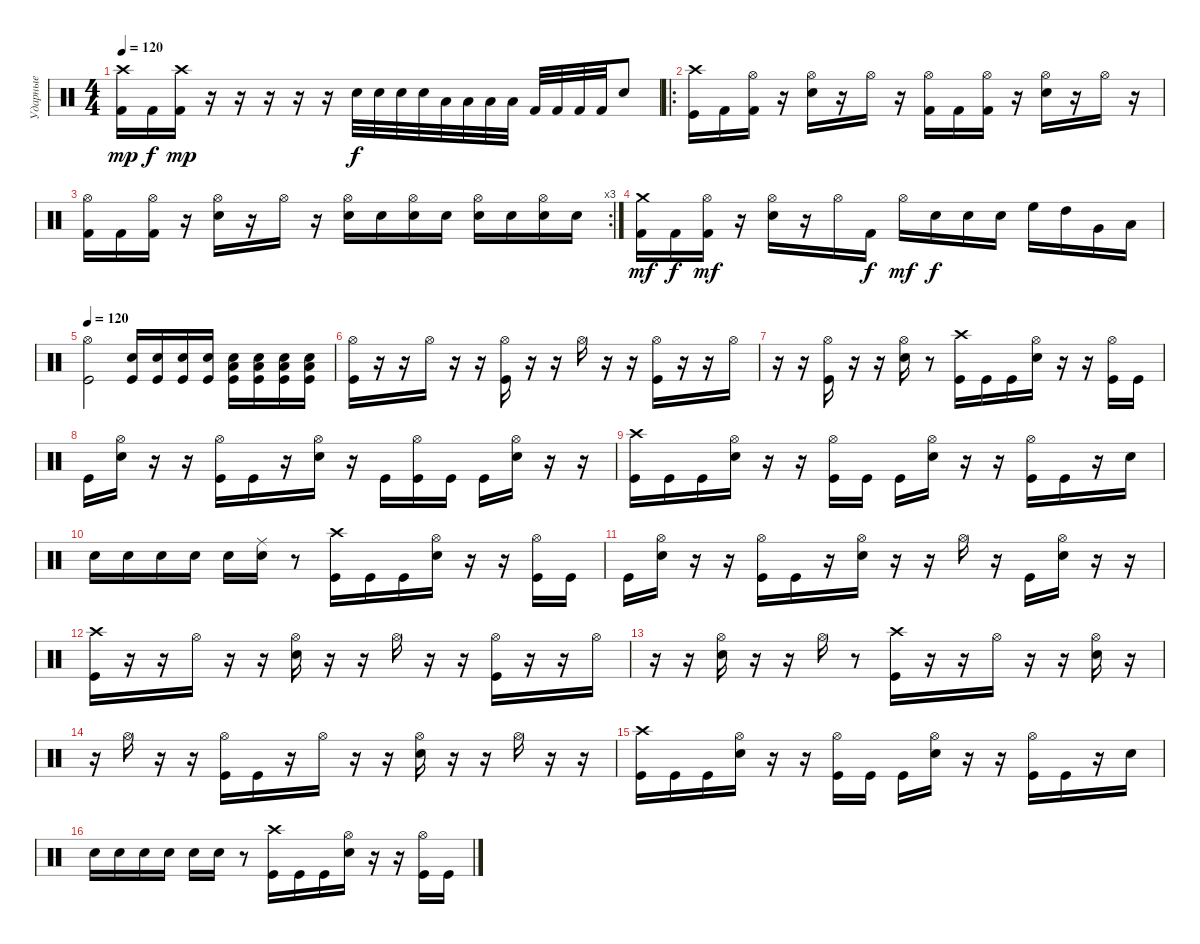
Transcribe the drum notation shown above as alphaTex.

\track ("Ударные" "Ударные") {instrument percussion}
\staff {score}
\articulation defaults
\ts (4 4)
\tempo 120
\clef neutral
\ks c
("Crash high (hit)" "Kick (hit) 2").16{dy mp} "Kick (hit) 2".16{dy f} ("Crash high (hit)" "Kick (hit) 2").16{dy mp} r.16 r.16 r.16 r.16 r.16 "Snare (hit) 2".32{dy f} "Snare (hit) 2".32 "Snare (hit) 2".32 "Snare (hit) 2".32 "Low Tom (hit)".32 "Low Tom (hit)".32 "Low Tom (hit)".32 "Low Tom (hit)".32 "Kick (hit) 2".32 "Kick (hit) 2".32 "Kick (hit) 2".32 "Kick (hit) 2".32 "Snare (hit) 2".8 |
\ro
("Crash high (hit)" "Kick (hit)").16 "Kick (hit) 2".16 ("Hi-Hat (open)" "Kick (hit) 2").16 r.16 ("Hi-Hat (open)" "Snare (hit) 2").16 r.16 "Hi-Hat (open)".16 r.16 ("Hi-Hat (open)" "Kick (hit) 2").16 "Kick (hit) 2".16 ("Hi-Hat (open)" "Kick (hit) 2").16 r.16 ("Hi-Hat (open)" "Snare (hit) 2").16 r.16 "Hi-Hat (open)".16 r.16 |
\rc 3
("Hi-Hat (open)" "Kick (hit) 2").16 "Kick (hit) 2".16 ("Hi-Hat (open)" "Kick (hit) 2").16 r.16 ("Hi-Hat (open)" "Snare (hit) 2").16 r.16 "Hi-Hat (open)".16 r.16 ("Hi-Hat (open)" "Snare (hit) 2").16 "Snare (hit) 2".16 ("Hi-Hat (open)" "Snare (hit) 2").16 "Snare (hit) 2".16 ("Hi-Hat (open)" "Snare (hit) 2").16 "Snare (hit) 2".16 ("Hi-Hat (open)" "Snare (hit) 2").16 "Snare (hit) 2".16 |
("Crash medium (hit)" "Kick (hit) 2").16{dy mf} "Kick (hit) 2".16{dy f} ("Hi-Hat (open)" "Kick (hit) 2").16{dy mf} r.16 ("Hi-Hat (open)" "Snare (hit) 2").16 r.16 "Hi-Hat (open)".16 "Kick (hit) 2".16{dy f} "Hi-Hat (open)".16{dy mf} "Snare (hit) 2".16{dy f} "Snare (hit) 2".16 "Snare (hit) 2".16 "High Floor Tom (hit)".16 "High Tom (hit)".16 "Very Low Tom (hit)".16 "Low Floor Tom (hit)".16 |
\tempo 120
("Hi-Hat (open)" "Kick (hit)").2 ("Kick (hit)" "Snare (hit) 2").16 ("Kick (hit)" "Snare (hit) 2").16 ("Kick (hit)" "Snare (hit) 2").16 ("Kick (hit)" "Snare (hit) 2").16 ("Kick (hit)" "Snare (hit) 2" "Low Floor Tom (hit)").16 ("Kick (hit)" "Snare (hit) 2" "Low Floor Tom (hit)").16 ("Kick (hit)" "Snare (hit) 2" "Low Floor Tom (hit)").16 ("Kick (hit)" "Snare (hit) 2" "Low Floor Tom (hit)").16 |
("Hi-Hat (open)" "Kick (hit)").16 r.16 r.16 "Hi-Hat (open)".16 r.16 r.16 ("Hi-Hat (open)" "Kick (hit)").16 r.16 r.16 "Hi-Hat (open)".16 r.16 r.16 ("Hi-Hat (open)" "Kick (hit)").16 r.16 r.16 "Hi-Hat (open)".16 |
r.16 r.16 ("Kick (hit)" "Hi-Hat (open)").16 r.16 r.16 ("Snare (hit) 2" "Hi-Hat (open)").16 r.8 ("Kick (hit)" "Crash high (hit)").16 "Kick (hit)".16 "Kick (hit)".16 ("Snare (hit) 2" "Hi-Hat (open)").16 r.16 r.16 ("Kick (hit)" "Hi-Hat (open)").16 "Kick (hit)".16 |
"Kick (hit)".16 ("Snare (hit) 2" "Hi-Hat (open)").16 r.16 r.16 ("Kick (hit)" "Hi-Hat (open)").16 "Kick (hit)".16 r.16 ("Snare (hit) 2" "Hi-Hat (open)").16 r.16 "Kick (hit)".16 ("Kick (hit)" "Hi-Hat (open)").16 "Kick (hit)".16 "Kick (hit)".16 ("Snare (hit) 2" "Hi-Hat (open)").16 r.16 r.16 |
("Kick (hit)" "Crash high (hit)").16 "Kick (hit)".16 "Kick (hit)".16 ("Snare (hit) 2" "Hi-Hat (open)").16 r.16 r.16 ("Kick (hit)" "Hi-Hat (open)").16 "Kick (hit)".16 "Kick (hit)".16 ("Snare (hit) 2" "Hi-Hat (open)").16 r.16 r.16 ("Kick (hit)" "Hi-Hat (open)").16 "Kick (hit)".16 r.16 "Snare (hit) 2".16 |
"Snare (hit) 2".16 "Snare (hit) 2".16 "Snare (hit) 2".16 "Snare (hit) 2".16 "Snare (hit) 2".16 ("Snare (hit) 2" "Ride (middle)").16 r.8 ("Kick (hit)" "Crash high (hit)").16 "Kick (hit)".16 "Kick (hit)".16 ("Snare (hit) 2" "Hi-Hat (open)").16 r.16 r.16 ("Kick (hit)" "Hi-Hat (open)").16 "Kick (hit)".16 |
"Kick (hit)".16 ("Snare (hit) 2" "Hi-Hat (open)").16 r.16 r.16 ("Kick (hit)" "Hi-Hat (open)").16 "Kick (hit)".16 r.16 ("Snare (hit) 2" "Hi-Hat (open)").16 r.16 r.16 "Hi-Hat (open)".16 r.16 "Kick (hit)".16 ("Snare (hit) 2" "Hi-Hat (open)").16 r.16 r.16 |
("Kick (hit)" "Crash high (hit)").16 r.16 r.16 "Hi-Hat (open)".16 r.16 r.16 ("Hi-Hat (open)" "Snare (hit) 2").16 r.16 r.16 "Hi-Hat (open)".16 r.16 r.16 ("Hi-Hat (open)" "Kick (hit)").16 r.16 r.16 "Hi-Hat (open)".16 |
r.16 r.16 ("Snare (hit) 2" "Hi-Hat (open)").16 r.16 r.16 "Hi-Hat (open)".16 r.8 ("Kick (hit)" "Crash high (hit)").16 r.16 r.16 "Hi-Hat (open)".16 r.16 r.16 ("Snare (hit) 2" "Hi-Hat (open)").16 r.16 |
r.16 "Hi-Hat (open)".16 r.16 r.16 ("Kick (hit)" "Hi-Hat (open)").16 "Kick (hit)".16 r.16 "Hi-Hat (open)".16 r.16 r.16 ("Snare (hit) 2" "Hi-Hat (open)").16 r.16 r.16 "Hi-Hat (open)".16 r.16 r.16 |
("Kick (hit)" "Crash high (hit)").16 "Kick (hit)".16 "Kick (hit)".16 ("Snare (hit) 2" "Hi-Hat (open)").16 r.16 r.16 ("Kick (hit)" "Hi-Hat (open)").16 "Kick (hit)".16 "Kick (hit)".16 ("Snare (hit) 2" "Hi-Hat (open)").16 r.16 r.16 ("Kick (hit)" "Hi-Hat (open)").16 "Kick (hit)".16 r.16 "Snare (hit) 2".16 |
"Snare (hit) 2".16 "Snare (hit) 2".16 "Snare (hit) 2".16 "Snare (hit) 2".16 "Snare (hit) 2".16 "Snare (hit) 2".16 r.8 ("Kick (hit)" "Crash high (hit)").16 "Kick (hit)".16 "Kick (hit)".16 ("Snare (hit) 2" "Hi-Hat (open)").16 r.16 r.16 ("Kick (hit)" "Hi-Hat (open)").16 "Kick (hit)".16
